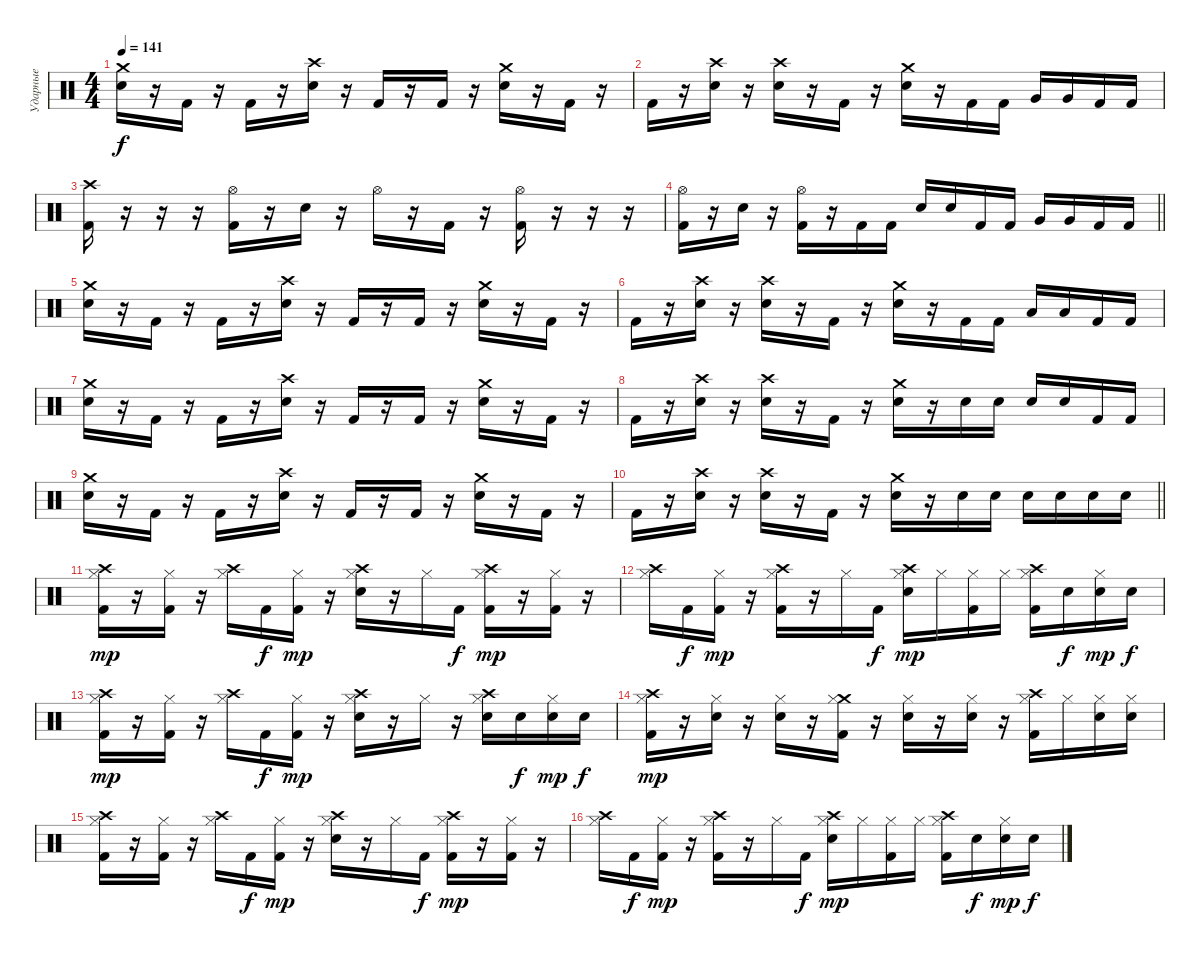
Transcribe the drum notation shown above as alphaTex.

\track ("Ударные" "Ударные") {instrument percussion}
\staff {score}
\articulation defaults
\ts (4 4)
\tempo 141
\clef neutral
\ks c
("Crash medium (hit)" "Electric Snare (hit)").16{dy f} r.16 "Kick (hit) 2".16 r.16 "Kick (hit) 2".16 r.16 ("Crash high (hit)" "Electric Snare (hit)").16 r.16 "Kick (hit) 2".16 r.16 "Kick (hit) 2".16 r.16 ("Crash medium (hit)" "Electric Snare (hit)").16 r.16 "Kick (hit) 2".16 r.16 |
"Kick (hit) 2".16 r.16 ("Crash high (hit)" "Electric Snare (hit)").16 r.16 ("Crash high (hit)" "Electric Snare (hit)").16 r.16 "Kick (hit) 2".16 r.16 ("Crash medium (hit)" "Electric Snare (hit)").16 r.16 "Kick (hit) 2".16 "Kick (hit) 2".16 "Very Low Tom (hit)".16 "Very Low Tom (hit)".16 "Kick (hit) 2".16 "Kick (hit) 2".16 |
("Crash high (hit)" "Kick (hit) 2").16 r.16 r.16 r.16 ("Hi-Hat (open)" "Kick (hit) 2").16 r.16 "Electric Snare (hit)".16 r.16 "Hi-Hat (open)".16 r.16 "Kick (hit) 2".16 r.16 ("Hi-Hat (open)" "Kick (hit) 2").16 r.16 r.16 r.16 |
\barLineRight lightlight
("Hi-Hat (open)" "Kick (hit) 2").16 r.16 "Electric Snare (hit)".16 r.16 ("Hi-Hat (open)" "Kick (hit) 2").16 r.16 "Kick (hit) 2".16 "Kick (hit) 2".16 "Electric Snare (hit)".16 "Electric Snare (hit)".16 "Kick (hit) 2".16 "Kick (hit) 2".16 "Very Low Tom (hit)".16 "Very Low Tom (hit)".16 "Kick (hit) 2".16 "Kick (hit) 2".16 |
\section ("" "")
("Crash medium (hit)" "Electric Snare (hit)").16 r.16 "Kick (hit) 2".16 r.16 "Kick (hit) 2".16 r.16 ("Crash high (hit)" "Electric Snare (hit)").16 r.16 "Kick (hit) 2".16 r.16 "Kick (hit) 2".16 r.16 ("Crash medium (hit)" "Electric Snare (hit)").16 r.16 "Kick (hit) 2".16 r.16 |
"Kick (hit) 2".16 r.16 ("Crash high (hit)" "Electric Snare (hit)").16 r.16 ("Crash high (hit)" "Electric Snare (hit)").16 r.16 "Kick (hit) 2".16 r.16 ("Crash medium (hit)" "Electric Snare (hit)").16 r.16 "Kick (hit) 2".16 "Kick (hit) 2".16 "Low Tom (hit)".16 "Low Tom (hit)".16 "Kick (hit) 2".16 "Kick (hit) 2".16 |
("Crash medium (hit)" "Electric Snare (hit)").16 r.16 "Kick (hit) 2".16 r.16 "Kick (hit) 2".16 r.16 ("Crash high (hit)" "Electric Snare (hit)").16 r.16 "Kick (hit) 2".16 r.16 "Kick (hit) 2".16 r.16 ("Crash medium (hit)" "Electric Snare (hit)").16 r.16 "Kick (hit) 2".16 r.16 |
"Kick (hit) 2".16 r.16 ("Crash high (hit)" "Electric Snare (hit)").16 r.16 ("Crash high (hit)" "Electric Snare (hit)").16 r.16 "Kick (hit) 2".16 r.16 ("Crash medium (hit)" "Electric Snare (hit)").16 r.16 "Electric Snare (hit)".16 "Electric Snare (hit)".16 "Electric Snare (hit)".16 "Electric Snare (hit)".16 "Kick (hit) 2".16 "Kick (hit) 2".16 |
("Crash medium (hit)" "Electric Snare (hit)").16 r.16 "Kick (hit) 2".16 r.16 "Kick (hit) 2".16 r.16 ("Crash high (hit)" "Electric Snare (hit)").16 r.16 "Kick (hit) 2".16 r.16 "Kick (hit) 2".16 r.16 ("Crash medium (hit)" "Electric Snare (hit)").16 r.16 "Kick (hit) 2".16 r.16 |
\barLineRight lightlight "Kick (hit) 2".16
r.16 ("Crash high (hit)" "Electric Snare (hit)").16 r.16 ("Crash high (hit)" "Electric Snare (hit)").16 r.16 "Kick (hit) 2".16 r.16 ("Crash medium (hit)" "Electric Snare (hit)").16 r.16 "Electric Snare (hit)".16 "Electric Snare (hit)".16 "Electric Snare (hit)".16 "Electric Snare (hit)".16 "Electric Snare (hit)".16 "Electric Snare (hit)".16 |
\section ("" "")
("Crash high (hit)" "Hi-Hat (closed)" "Kick (hit) 2").16{dy mp} r.16 ("Hi-Hat (closed)" "Kick (hit) 2").16 r.16 ("Crash high (hit)" "Hi-Hat (closed)").16 "Kick (hit) 2".16{dy f} ("Hi-Hat (closed)" "Kick (hit) 2").16{dy mp} r.16 ("Crash high (hit)" "Hi-Hat (closed)" "Electric Snare (hit)").16 r.16 "Hi-Hat (closed)".16 "Kick (hit) 2".16{dy f} ("Crash high (hit)" "Hi-Hat (closed)" "Kick (hit) 2").16{dy mp} r.16 ("Hi-Hat (closed)" "Kick (hit) 2").16 r.16 |
("Crash high (hit)" "Hi-Hat (closed)").16 "Kick (hit) 2".16{dy f} ("Hi-Hat (closed)" "Kick (hit) 2").16{dy mp} r.16 ("Crash high (hit)" "Hi-Hat (closed)" "Kick (hit) 2").16 r.16 "Hi-Hat (closed)".16 "Kick (hit) 2".16{dy f} ("Crash high (hit)" "Hi-Hat (closed)" "Electric Snare (hit)").16{dy mp} "Hi-Hat (closed)".16 ("Hi-Hat (closed)" "Kick (hit) 2").16 "Hi-Hat (closed)".16 ("Crash high (hit)" "Hi-Hat (closed)" "Kick (hit) 2").16 "Electric Snare (hit)".16{dy f} ("Hi-Hat (closed)" "Electric Snare (hit)").16{dy mp} "Electric Snare (hit)".16{dy f} |
("Crash high (hit)" "Hi-Hat (closed)" "Kick (hit) 2").16{dy mp} r.16 ("Hi-Hat (closed)" "Kick (hit) 2").16 r.16 ("Crash high (hit)" "Hi-Hat (closed)").16 "Kick (hit) 2".16{dy f} ("Hi-Hat (closed)" "Kick (hit) 2").16{dy mp} r.16 ("Crash high (hit)" "Hi-Hat (closed)" "Electric Snare (hit)").16 r.16 "Hi-Hat (closed)".16 r.16 ("Crash high (hit)" "Hi-Hat (closed)" "Electric Snare (hit)").16 "Electric Snare (hit)".16{dy f} ("Hi-Hat (closed)" "Electric Snare (hit)").16{dy mp} "Electric Snare (hit)".16{dy f} |
("Crash high (hit)" "Hi-Hat (closed)" "Kick (hit) 2").16{dy mp} r.16 ("Hi-Hat (closed)" "Electric Snare (hit)").16 r.16 ("Hi-Hat (closed)" "Electric Snare (hit)").16 r.16 ("Crash medium (hit)" "Hi-Hat (closed)" "Kick (hit) 2").16 r.16 ("Hi-Hat (closed)" "Electric Snare (hit)").16 r.16 ("Hi-Hat (closed)" "Electric Snare (hit)").16 r.16 ("Crash high (hit)" "Hi-Hat (closed)" "Kick (hit) 2").16 "Hi-Hat (closed)".16 ("Hi-Hat (closed)" "Electric Snare (hit)").16 ("Hi-Hat (closed)" "Electric Snare (hit)").16 |
("Crash high (hit)" "Hi-Hat (closed)" "Kick (hit) 2").16 r.16 ("Hi-Hat (closed)" "Kick (hit) 2").16 r.16 ("Crash high (hit)" "Hi-Hat (closed)").16 "Kick (hit) 2".16{dy f} ("Hi-Hat (closed)" "Kick (hit) 2").16{dy mp} r.16 ("Crash high (hit)" "Hi-Hat (closed)" "Electric Snare (hit)").16 r.16 "Hi-Hat (closed)".16 "Kick (hit) 2".16{dy f} ("Crash high (hit)" "Hi-Hat (closed)" "Kick (hit) 2").16{dy mp} r.16 ("Hi-Hat (closed)" "Kick (hit) 2").16 r.16 |
("Crash high (hit)" "Hi-Hat (closed)").16 "Kick (hit) 2".16{dy f} ("Hi-Hat (closed)" "Kick (hit) 2").16{dy mp} r.16 ("Crash high (hit)" "Hi-Hat (closed)" "Kick (hit) 2").16 r.16 "Hi-Hat (closed)".16 "Kick (hit) 2".16{dy f} ("Crash high (hit)" "Hi-Hat (closed)" "Electric Snare (hit)").16{dy mp} "Hi-Hat (closed)".16 ("Hi-Hat (closed)" "Kick (hit) 2").16 "Hi-Hat (closed)".16 ("Crash high (hit)" "Hi-Hat (closed)" "Kick (hit) 2").16 "Electric Snare (hit)".16{dy f} ("Hi-Hat (closed)" "Electric Snare (hit)").16{dy mp} "Electric Snare (hit)".16{dy f}
